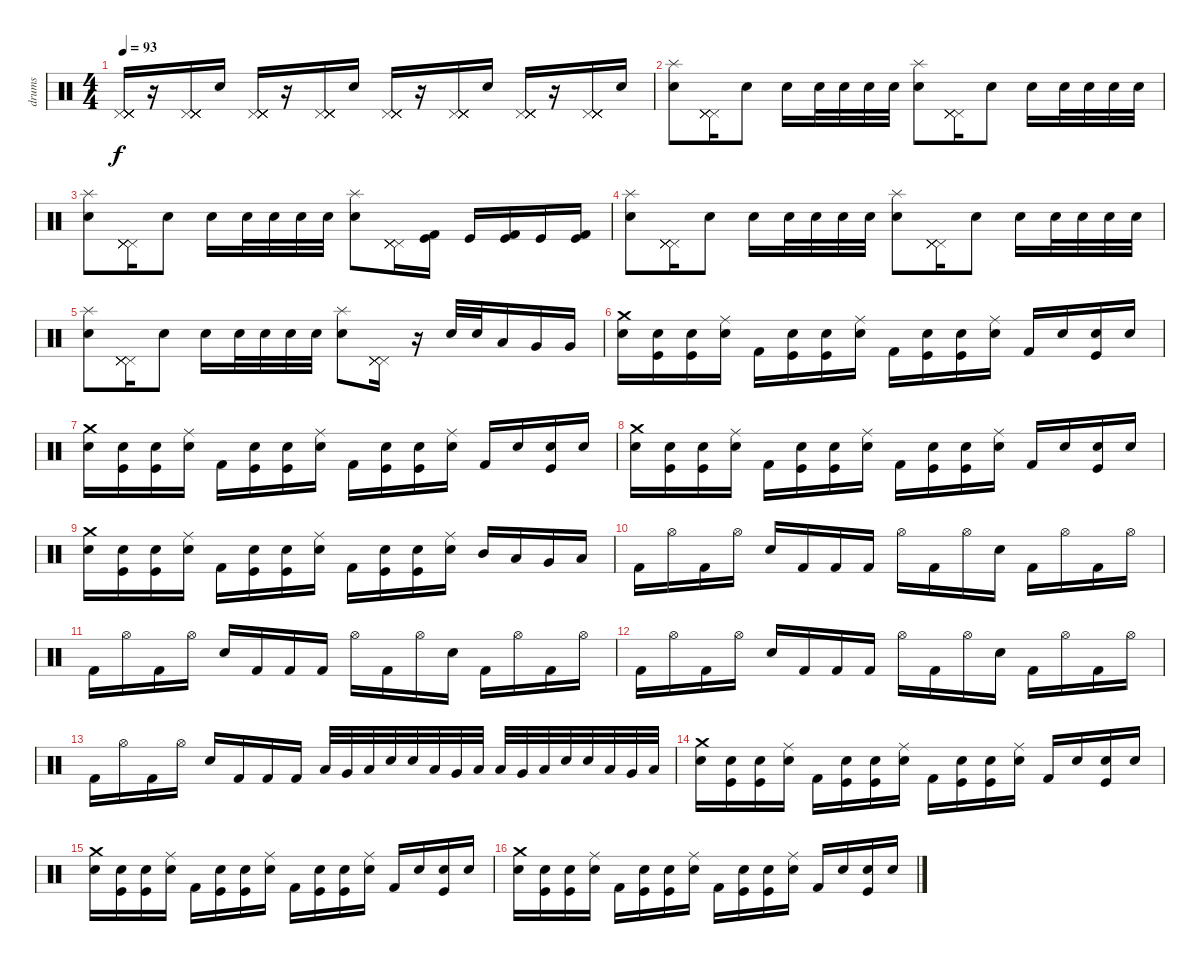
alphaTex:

\track ("drums" "drums") {instrument percussion}
\staff {score}
\articulation defaults
\ts (4 4)
\tempo 93
\clef neutral
\ks c
("Pedal Hi-Hat (hit)" "Pedal Hi-Hat (hit)" "Pedal Hi-Hat (hit)" "Pedal Hi-Hat (hit)" "Pedal Hi-Hat (hit)" "Pedal Hi-Hat (hit)").16{dy f} r.16 ("Pedal Hi-Hat (hit)" "Pedal Hi-Hat (hit)" "Pedal Hi-Hat (hit)" "Pedal Hi-Hat (hit)" "Pedal Hi-Hat (hit)" "Pedal Hi-Hat (hit)").16 "Electric Snare (hit)".16 ("Pedal Hi-Hat (hit)" "Pedal Hi-Hat (hit)" "Pedal Hi-Hat (hit)" "Pedal Hi-Hat (hit)" "Pedal Hi-Hat (hit)" "Pedal Hi-Hat (hit)").16 r.16 ("Pedal Hi-Hat (hit)" "Pedal Hi-Hat (hit)" "Pedal Hi-Hat (hit)" "Pedal Hi-Hat (hit)" "Pedal Hi-Hat (hit)" "Pedal Hi-Hat (hit)").16 "Electric Snare (hit)".16 ("Pedal Hi-Hat (hit)" "Pedal Hi-Hat (hit)" "Pedal Hi-Hat (hit)" "Pedal Hi-Hat (hit)" "Pedal Hi-Hat (hit)" "Pedal Hi-Hat (hit)").16 r.16 ("Pedal Hi-Hat (hit)" "Pedal Hi-Hat (hit)" "Pedal Hi-Hat (hit)" "Pedal Hi-Hat (hit)" "Pedal Hi-Hat (hit)" "Pedal Hi-Hat (hit)").16 "Electric Snare (hit)".16 ("Pedal Hi-Hat (hit)" "Pedal Hi-Hat (hit)" "Pedal Hi-Hat (hit)" "Pedal Hi-Hat (hit)" "Pedal Hi-Hat (hit)" "Pedal Hi-Hat (hit)").16 r.16 ("Pedal Hi-Hat (hit)" "Pedal Hi-Hat (hit)" "Pedal Hi-Hat (hit)" "Pedal Hi-Hat (hit)" "Pedal Hi-Hat (hit)" "Pedal Hi-Hat (hit)").16 "Electric Snare (hit)".16 |
("Electric Snare (hit)" "Splash (hit)").8 ("Pedal Hi-Hat (hit)" "Pedal Hi-Hat (hit)" "Pedal Hi-Hat (hit)" "Pedal Hi-Hat (hit)").16 "Electric Snare (hit)".8 "Electric Snare (hit)".16 "Electric Snare (hit)".32 "Electric Snare (hit)".32 "Electric Snare (hit)".32 "Electric Snare (hit)".32 ("Electric Snare (hit)" "Splash (hit)").8 ("Pedal Hi-Hat (hit)" "Pedal Hi-Hat (hit)" "Pedal Hi-Hat (hit)" "Pedal Hi-Hat (hit)").16 "Electric Snare (hit)".8 "Electric Snare (hit)".16 "Electric Snare (hit)".32 "Electric Snare (hit)".32 "Electric Snare (hit)".32 "Electric Snare (hit)".32 |
("Electric Snare (hit)" "Splash (hit)").8 ("Pedal Hi-Hat (hit)" "Pedal Hi-Hat (hit)" "Pedal Hi-Hat (hit)" "Pedal Hi-Hat (hit)").16 "Electric Snare (hit)".8 "Electric Snare (hit)".16 "Electric Snare (hit)".32 "Electric Snare (hit)".32 "Electric Snare (hit)".32 "Electric Snare (hit)".32 ("Electric Snare (hit)" "Splash (hit)").8 ("Pedal Hi-Hat (hit)" "Pedal Hi-Hat (hit)" "Pedal Hi-Hat (hit)" "Pedal Hi-Hat (hit)").16 ("Kick (hit)" "Kick (hit) 2").16 "Kick (hit)".16 ("Kick (hit)" "Kick (hit) 2").16 "Kick (hit)".16 ("Kick (hit)" "Kick (hit) 2").16 |
("Electric Snare (hit)" "Splash (hit)").8 ("Pedal Hi-Hat (hit)" "Pedal Hi-Hat (hit)" "Pedal Hi-Hat (hit)" "Pedal Hi-Hat (hit)").16 "Electric Snare (hit)".8 "Electric Snare (hit)".16 "Electric Snare (hit)".32 "Electric Snare (hit)".32 "Electric Snare (hit)".32 "Electric Snare (hit)".32 ("Electric Snare (hit)" "Splash (hit)").8 ("Pedal Hi-Hat (hit)" "Pedal Hi-Hat (hit)" "Pedal Hi-Hat (hit)" "Pedal Hi-Hat (hit)").16 "Electric Snare (hit)".8 "Electric Snare (hit)".16 "Electric Snare (hit)".32 "Electric Snare (hit)".32 "Electric Snare (hit)".32 "Electric Snare (hit)".32 |
("Electric Snare (hit)" "Splash (hit)").8 ("Pedal Hi-Hat (hit)" "Pedal Hi-Hat (hit)" "Pedal Hi-Hat (hit)" "Pedal Hi-Hat (hit)").16 "Electric Snare (hit)".8 "Electric Snare (hit)".16 "Electric Snare (hit)".32 "Electric Snare (hit)".32 "Electric Snare (hit)".32 "Electric Snare (hit)".32 ("Electric Snare (hit)" "Splash (hit)").8 ("Pedal Hi-Hat (hit)" "Pedal Hi-Hat (hit)" "Pedal Hi-Hat (hit)" "Pedal Hi-Hat (hit)").16 r.16 "Electric Snare (hit)".32 "Electric Snare (hit)".32 "Low Tom (hit)".16 "Very Low Tom (hit)".16 "Very Low Tom (hit)".16 |
("Crash medium (hit)" "Electric Snare (hit)").16 ("Kick (hit)" "Snare (hit) 2").16 ("Kick (hit)" "Snare (hit) 2").16 ("Ride (middle)" "Electric Snare (hit)").16 "Kick (hit) 2".16 ("Kick (hit)" "Snare (hit) 2").16 ("Kick (hit)" "Snare (hit) 2").16 ("Ride (middle)" "Electric Snare (hit)").16 "Kick (hit) 2".16 ("Kick (hit)" "Snare (hit) 2").16 ("Kick (hit)" "Snare (hit) 2").16 ("Ride (middle)" "Electric Snare (hit)").16 "Kick (hit) 2".16 "Electric Snare (hit)".16 ("Snare (hit) 2" "Kick (hit)").16 "Electric Snare (hit)".16 |
("Crash medium (hit)" "Electric Snare (hit)").16 ("Kick (hit)" "Snare (hit) 2").16 ("Kick (hit)" "Snare (hit) 2").16 ("Ride (middle)" "Electric Snare (hit)").16 "Kick (hit) 2".16 ("Kick (hit)" "Snare (hit) 2").16 ("Kick (hit)" "Snare (hit) 2").16 ("Ride (middle)" "Electric Snare (hit)").16 "Kick (hit) 2".16 ("Kick (hit)" "Snare (hit) 2").16 ("Kick (hit)" "Snare (hit) 2").16 ("Ride (middle)" "Electric Snare (hit)").16 "Kick (hit) 2".16 "Electric Snare (hit)".16 ("Snare (hit) 2" "Kick (hit)").16 "Electric Snare (hit)".16 |
("Crash medium (hit)" "Electric Snare (hit)").16 ("Kick (hit)" "Snare (hit) 2").16 ("Kick (hit)" "Snare (hit) 2").16 ("Ride (middle)" "Electric Snare (hit)").16 "Kick (hit) 2".16 ("Kick (hit)" "Snare (hit) 2").16 ("Kick (hit)" "Snare (hit) 2").16 ("Ride (middle)" "Electric Snare (hit)").16 "Kick (hit) 2".16 ("Kick (hit)" "Snare (hit) 2").16 ("Kick (hit)" "Snare (hit) 2").16 ("Ride (middle)" "Electric Snare (hit)").16 "Kick (hit) 2".16 "Electric Snare (hit)".16 ("Snare (hit) 2" "Kick (hit)").16 "Electric Snare (hit)".16 |
("Crash medium (hit)" "Electric Snare (hit)").16 ("Kick (hit)" "Snare (hit) 2").16 ("Kick (hit)" "Snare (hit) 2").16 ("Ride (middle)" "Electric Snare (hit)").16 "Kick (hit) 2".16 ("Kick (hit)" "Snare (hit) 2").16 ("Kick (hit)" "Snare (hit) 2").16 ("Ride (middle)" "Electric Snare (hit)").16 "Kick (hit) 2".16 ("Kick (hit)" "Snare (hit) 2").16 ("Kick (hit)" "Snare (hit) 2").16 ("Ride (middle)" "Electric Snare (hit)").16 "Mid Tom (hit)".16 "Low Tom (hit)".16 "Very Low Tom (hit)".16 "Low Floor Tom (hit)".16 |
"Kick (hit) 2".16 "Hi-Hat (open)".16 "Kick (hit) 2".16 "Hi-Hat (open)".16 "Electric Snare (hit)".16 "Kick (hit) 2".16 "Kick (hit) 2".16 "Kick (hit) 2".16 "Hi-Hat (open)".16 "Kick (hit) 2".16 "Hi-Hat (open)".16 "Electric Snare (hit)".16 "Kick (hit) 2".16 "Hi-Hat (open)".16 "Kick (hit) 2".16 "Hi-Hat (open)".16 |
"Kick (hit) 2".16 "Hi-Hat (open)".16 "Kick (hit) 2".16 "Hi-Hat (open)".16 "Electric Snare (hit)".16 "Kick (hit) 2".16 "Kick (hit) 2".16 "Kick (hit) 2".16 "Hi-Hat (open)".16 "Kick (hit) 2".16 "Hi-Hat (open)".16 "Electric Snare (hit)".16 "Kick (hit) 2".16 "Hi-Hat (open)".16 "Kick (hit) 2".16 "Hi-Hat (open)".16 |
"Kick (hit) 2".16 "Hi-Hat (open)".16 "Kick (hit) 2".16 "Hi-Hat (open)".16 "Electric Snare (hit)".16 "Kick (hit) 2".16 "Kick (hit) 2".16 "Kick (hit) 2".16 "Hi-Hat (open)".16 "Kick (hit) 2".16 "Hi-Hat (open)".16 "Electric Snare (hit)".16 "Kick (hit) 2".16 "Hi-Hat (open)".16 "Kick (hit) 2".16 "Hi-Hat (open)".16 |
"Kick (hit) 2".16 "Hi-Hat (open)".16 "Kick (hit) 2".16 "Hi-Hat (open)".16 "Electric Snare (hit)".16 "Kick (hit) 2".16 "Kick (hit) 2".16 "Kick (hit) 2".16 "Low Floor Tom (hit)".32 "Very Low Tom (hit)".32 "Low Tom (hit)".32 "Electric Snare (hit)".32 "Snare (hit) 2".32 "Low Tom (hit)".32 "Very Low Tom (hit)".32 "Low Floor Tom (hit)".32 "Low Floor Tom (hit)".32 "Very Low Tom (hit)".32 "Low Tom (hit)".32 "Electric Snare (hit)".32 "Snare (hit) 2".32 "Low Tom (hit)".32 "Very Low Tom (hit)".32 "Low Floor Tom (hit)".32 |
("Crash medium (hit)" "Electric Snare (hit)").16 ("Kick (hit)" "Snare (hit) 2").16 ("Kick (hit)" "Snare (hit) 2").16 ("Ride (middle)" "Electric Snare (hit)").16 "Kick (hit) 2".16 ("Kick (hit)" "Snare (hit) 2").16 ("Kick (hit)" "Snare (hit) 2").16 ("Ride (middle)" "Electric Snare (hit)").16 "Kick (hit) 2".16 ("Kick (hit)" "Snare (hit) 2").16 ("Kick (hit)" "Snare (hit) 2").16 ("Ride (middle)" "Electric Snare (hit)").16 "Kick (hit) 2".16 "Electric Snare (hit)".16 ("Snare (hit) 2" "Kick (hit)").16 "Electric Snare (hit)".16 |
("Crash medium (hit)" "Electric Snare (hit)").16 ("Kick (hit)" "Snare (hit) 2").16 ("Kick (hit)" "Snare (hit) 2").16 ("Ride (middle)" "Electric Snare (hit)").16 "Kick (hit) 2".16 ("Kick (hit)" "Snare (hit) 2").16 ("Kick (hit)" "Snare (hit) 2").16 ("Ride (middle)" "Electric Snare (hit)").16 "Kick (hit) 2".16 ("Kick (hit)" "Snare (hit) 2").16 ("Kick (hit)" "Snare (hit) 2").16 ("Ride (middle)" "Electric Snare (hit)").16 "Kick (hit) 2".16 "Electric Snare (hit)".16 ("Snare (hit) 2" "Kick (hit)").16 "Electric Snare (hit)".16 |
("Crash medium (hit)" "Electric Snare (hit)").16 ("Kick (hit)" "Snare (hit) 2").16 ("Kick (hit)" "Snare (hit) 2").16 ("Ride (middle)" "Electric Snare (hit)").16 "Kick (hit) 2".16 ("Kick (hit)" "Snare (hit) 2").16 ("Kick (hit)" "Snare (hit) 2").16 ("Ride (middle)" "Electric Snare (hit)").16 "Kick (hit) 2".16 ("Kick (hit)" "Snare (hit) 2").16 ("Kick (hit)" "Snare (hit) 2").16 ("Ride (middle)" "Electric Snare (hit)").16 "Kick (hit) 2".16 "Electric Snare (hit)".16 ("Snare (hit) 2" "Kick (hit)").16 "Electric Snare (hit)".16
